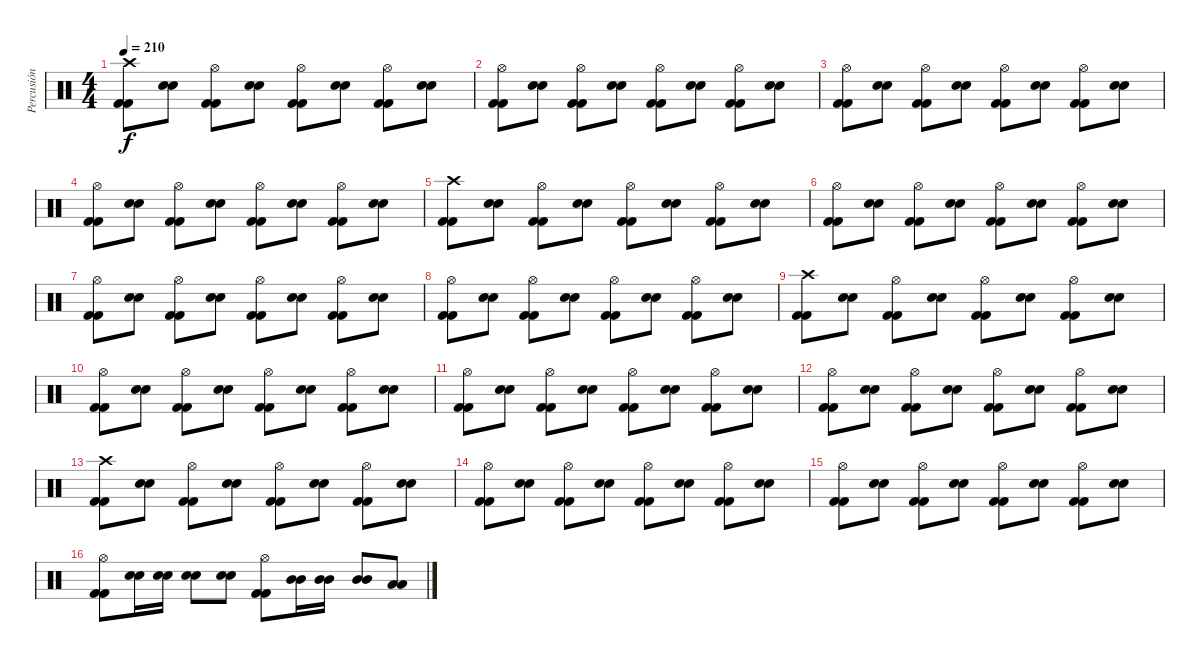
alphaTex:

\track ("Percusión" "Percusión") {instrument percussion}
\staff {score}
\articulation defaults
\ts (4 4)
\tempo 210
\clef neutral
\ks c
("Kick (hit) 2" "Kick (hit) 2" "Crash high (hit)").8{dy f} ("Electric Snare (hit)" "Electric Snare (hit)").8 ("Kick (hit) 2" "Kick (hit) 2" "Hi-Hat (open)").8 ("Electric Snare (hit)" "Electric Snare (hit)").8 ("Kick (hit) 2" "Kick (hit) 2" "Hi-Hat (open)").8 ("Electric Snare (hit)" "Electric Snare (hit)").8 ("Kick (hit) 2" "Kick (hit) 2" "Hi-Hat (open)").8 ("Electric Snare (hit)" "Electric Snare (hit)").8 |
("Kick (hit) 2" "Kick (hit) 2" "Hi-Hat (open)").8 ("Electric Snare (hit)" "Electric Snare (hit)").8 ("Kick (hit) 2" "Kick (hit) 2" "Hi-Hat (open)").8 ("Electric Snare (hit)" "Electric Snare (hit)").8 ("Kick (hit) 2" "Kick (hit) 2" "Hi-Hat (open)").8 ("Electric Snare (hit)" "Electric Snare (hit)").8 ("Kick (hit) 2" "Kick (hit) 2" "Hi-Hat (open)").8 ("Electric Snare (hit)" "Electric Snare (hit)").8 |
("Kick (hit) 2" "Kick (hit) 2" "Hi-Hat (open)").8 ("Electric Snare (hit)" "Electric Snare (hit)").8 ("Kick (hit) 2" "Kick (hit) 2" "Hi-Hat (open)").8 ("Electric Snare (hit)" "Electric Snare (hit)").8 ("Kick (hit) 2" "Kick (hit) 2" "Hi-Hat (open)").8 ("Electric Snare (hit)" "Electric Snare (hit)").8 ("Kick (hit) 2" "Kick (hit) 2" "Hi-Hat (open)").8 ("Electric Snare (hit)" "Electric Snare (hit)").8 |
("Kick (hit) 2" "Kick (hit) 2" "Hi-Hat (open)").8 ("Electric Snare (hit)" "Electric Snare (hit)").8 ("Kick (hit) 2" "Kick (hit) 2" "Hi-Hat (open)").8 ("Electric Snare (hit)" "Electric Snare (hit)").8 ("Kick (hit) 2" "Kick (hit) 2" "Hi-Hat (open)").8 ("Electric Snare (hit)" "Electric Snare (hit)").8 ("Kick (hit) 2" "Kick (hit) 2" "Hi-Hat (open)").8 ("Electric Snare (hit)" "Electric Snare (hit)").8 |
("Kick (hit) 2" "Kick (hit) 2" "Crash high (hit)").8 ("Electric Snare (hit)" "Electric Snare (hit)").8 ("Kick (hit) 2" "Kick (hit) 2" "Hi-Hat (open)").8 ("Electric Snare (hit)" "Electric Snare (hit)").8 ("Kick (hit) 2" "Kick (hit) 2" "Hi-Hat (open)").8 ("Electric Snare (hit)" "Electric Snare (hit)").8 ("Kick (hit) 2" "Kick (hit) 2" "Hi-Hat (open)").8 ("Electric Snare (hit)" "Electric Snare (hit)").8 |
("Kick (hit) 2" "Kick (hit) 2" "Hi-Hat (open)").8 ("Electric Snare (hit)" "Electric Snare (hit)").8 ("Kick (hit) 2" "Kick (hit) 2" "Hi-Hat (open)").8 ("Electric Snare (hit)" "Electric Snare (hit)").8 ("Kick (hit) 2" "Kick (hit) 2" "Hi-Hat (open)").8 ("Electric Snare (hit)" "Electric Snare (hit)").8 ("Kick (hit) 2" "Kick (hit) 2" "Hi-Hat (open)").8 ("Electric Snare (hit)" "Electric Snare (hit)").8 |
("Kick (hit) 2" "Kick (hit) 2" "Hi-Hat (open)").8 ("Electric Snare (hit)" "Electric Snare (hit)").8 ("Kick (hit) 2" "Kick (hit) 2" "Hi-Hat (open)").8 ("Electric Snare (hit)" "Electric Snare (hit)").8 ("Kick (hit) 2" "Kick (hit) 2" "Hi-Hat (open)").8 ("Electric Snare (hit)" "Electric Snare (hit)").8 ("Kick (hit) 2" "Kick (hit) 2" "Hi-Hat (open)").8 ("Electric Snare (hit)" "Electric Snare (hit)").8 |
("Kick (hit) 2" "Kick (hit) 2" "Hi-Hat (open)").8 ("Electric Snare (hit)" "Electric Snare (hit)").8 ("Kick (hit) 2" "Kick (hit) 2" "Hi-Hat (open)").8 ("Electric Snare (hit)" "Electric Snare (hit)").8 ("Kick (hit) 2" "Kick (hit) 2" "Hi-Hat (open)").8 ("Electric Snare (hit)" "Electric Snare (hit)").8 ("Kick (hit) 2" "Kick (hit) 2" "Hi-Hat (open)").8 ("Electric Snare (hit)" "Electric Snare (hit)").8 |
("Kick (hit) 2" "Kick (hit) 2" "Crash high (hit)").8 ("Electric Snare (hit)" "Electric Snare (hit)").8 ("Kick (hit) 2" "Kick (hit) 2" "Hi-Hat (open)").8 ("Electric Snare (hit)" "Electric Snare (hit)").8 ("Kick (hit) 2" "Kick (hit) 2" "Hi-Hat (open)").8 ("Electric Snare (hit)" "Electric Snare (hit)").8 ("Kick (hit) 2" "Kick (hit) 2" "Hi-Hat (open)").8 ("Electric Snare (hit)" "Electric Snare (hit)").8 |
("Kick (hit) 2" "Kick (hit) 2" "Hi-Hat (open)").8 ("Electric Snare (hit)" "Electric Snare (hit)").8 ("Kick (hit) 2" "Kick (hit) 2" "Hi-Hat (open)").8 ("Electric Snare (hit)" "Electric Snare (hit)").8 ("Kick (hit) 2" "Kick (hit) 2" "Hi-Hat (open)").8 ("Electric Snare (hit)" "Electric Snare (hit)").8 ("Kick (hit) 2" "Kick (hit) 2" "Hi-Hat (open)").8 ("Electric Snare (hit)" "Electric Snare (hit)").8 |
("Kick (hit) 2" "Kick (hit) 2" "Hi-Hat (open)").8 ("Electric Snare (hit)" "Electric Snare (hit)").8 ("Kick (hit) 2" "Kick (hit) 2" "Hi-Hat (open)").8 ("Electric Snare (hit)" "Electric Snare (hit)").8 ("Kick (hit) 2" "Kick (hit) 2" "Hi-Hat (open)").8 ("Electric Snare (hit)" "Electric Snare (hit)").8 ("Kick (hit) 2" "Kick (hit) 2" "Hi-Hat (open)").8 ("Electric Snare (hit)" "Electric Snare (hit)").8 |
("Kick (hit) 2" "Kick (hit) 2" "Hi-Hat (open)").8 ("Electric Snare (hit)" "Electric Snare (hit)").8 ("Kick (hit) 2" "Kick (hit) 2" "Hi-Hat (open)").8 ("Electric Snare (hit)" "Electric Snare (hit)").8 ("Kick (hit) 2" "Kick (hit) 2" "Hi-Hat (open)").8 ("Electric Snare (hit)" "Electric Snare (hit)").8 ("Kick (hit) 2" "Kick (hit) 2" "Hi-Hat (open)").8 ("Electric Snare (hit)" "Electric Snare (hit)").8 |
("Kick (hit) 2" "Kick (hit) 2" "Crash high (hit)").8 ("Electric Snare (hit)" "Electric Snare (hit)").8 ("Kick (hit) 2" "Kick (hit) 2" "Hi-Hat (open)").8 ("Electric Snare (hit)" "Electric Snare (hit)").8 ("Kick (hit) 2" "Kick (hit) 2" "Hi-Hat (open)").8 ("Electric Snare (hit)" "Electric Snare (hit)").8 ("Kick (hit) 2" "Kick (hit) 2" "Hi-Hat (open)").8 ("Electric Snare (hit)" "Electric Snare (hit)").8 |
("Kick (hit) 2" "Kick (hit) 2" "Hi-Hat (open)").8 ("Electric Snare (hit)" "Electric Snare (hit)").8 ("Kick (hit) 2" "Kick (hit) 2" "Hi-Hat (open)").8 ("Electric Snare (hit)" "Electric Snare (hit)").8 ("Kick (hit) 2" "Kick (hit) 2" "Hi-Hat (open)").8 ("Electric Snare (hit)" "Electric Snare (hit)").8 ("Kick (hit) 2" "Kick (hit) 2" "Hi-Hat (open)").8 ("Electric Snare (hit)" "Electric Snare (hit)").8 |
("Kick (hit) 2" "Kick (hit) 2" "Hi-Hat (open)").8 ("Electric Snare (hit)" "Electric Snare (hit)").8 ("Kick (hit) 2" "Kick (hit) 2" "Hi-Hat (open)").8 ("Electric Snare (hit)" "Electric Snare (hit)").8 ("Kick (hit) 2" "Kick (hit) 2" "Hi-Hat (open)").8 ("Electric Snare (hit)" "Electric Snare (hit)").8 ("Kick (hit) 2" "Kick (hit) 2" "Hi-Hat (open)").8 ("Electric Snare (hit)" "Electric Snare (hit)").8 |
("Kick (hit) 2" "Kick (hit) 2" "Hi-Hat (open)").8 ("Electric Snare (hit)" "Electric Snare (hit)").16 ("Electric Snare (hit)" "Electric Snare (hit)").16 ("Electric Snare (hit)" "Electric Snare (hit)").8 ("Electric Snare (hit)" "Electric Snare (hit)").8 ("Kick (hit) 2" "Kick (hit) 2" "Hi-Hat (open)").8 ("Mid Tom (hit)" "Mid Tom (hit)").16 ("Mid Tom (hit)" "Mid Tom (hit)").16 ("Mid Tom (hit)" "Mid Tom (hit)").8 ("Low Floor Tom (hit)" "Low Floor Tom (hit)").8
